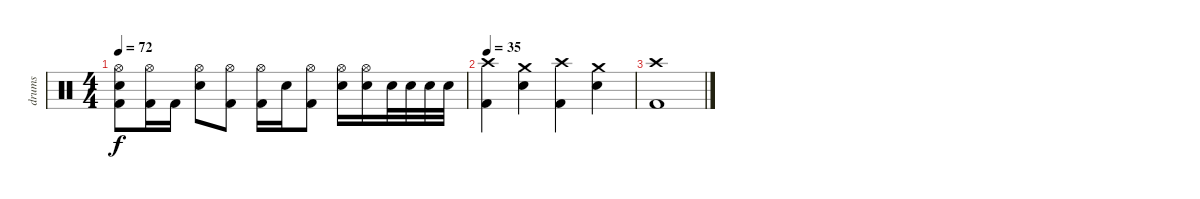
\track ("drums" "drums") {instrument percussion}
\staff {score}
\articulation defaults
\ts (4 4)
\tempo 72
\clef neutral
\ks c
("Hi-Hat (open)" "Electric Snare (hit)" "Kick (hit) 2").8{dy f} ("Hi-Hat (open)" "Kick (hit) 2").16 "Kick (hit) 2".16 ("Hi-Hat (open)" "Electric Snare (hit)").8 ("Hi-Hat (open)" "Kick (hit) 2").8 ("Hi-Hat (open)" "Kick (hit) 2").16 "Electric Snare (hit)".16 ("Hi-Hat (open)" "Kick (hit) 2").8 ("Hi-Hat (open)" "Electric Snare (hit)").16 ("Hi-Hat (open)" "Electric Snare (hit)").16 "Electric Snare (hit)".32 "Electric Snare (hit)".32 "Electric Snare (hit)".32 "Electric Snare (hit)".32 |
\tempo 35
("Crash high (hit)" "Kick (hit) 2").4 ("Crash medium (hit)" "Electric Snare (hit)").4 ("Crash high (hit)" "Kick (hit) 2").4 ("Crash medium (hit)" "Electric Snare (hit)").4 |
("Crash high (hit)" "Kick (hit) 2").1
